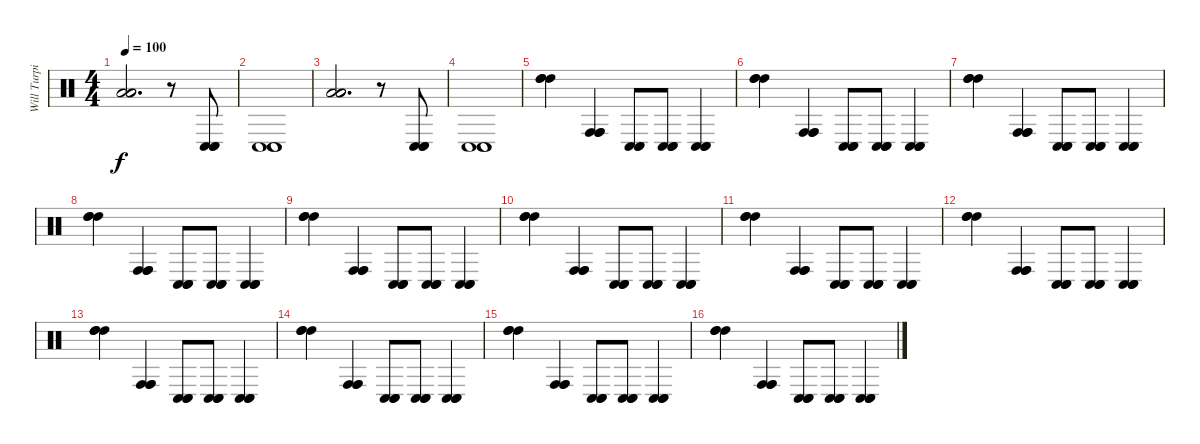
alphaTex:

\track ("Will Turpin" "Will Turpi") {instrument percussion}
\staff {score}
\articulation defaults
\ts (4 4)
\tempo 100
\clef neutral
\ks c
("Low Tom (hit)" "Low Tom (hit)" "Low Tom (hit)").2{d dy f} r.8 ("Conga low (hit)" "Conga low (hit)" "Conga low (hit)").8 |
("Conga low (hit)" "Conga low (hit)" "Conga low (hit)").1 |
("Low Tom (hit)" "Low Tom (hit)" "Low Tom (hit)").2{d} r.8 ("Conga low (hit)" "Conga low (hit)" "Conga low (hit)").8 |
("Conga low (hit)" "Conga low (hit)" "Conga low (hit)").1 |
("High Tom (hit)" "High Tom (hit)" "High Tom (hit)").4 ("Conga high (hit)" "Conga high (hit)" "Conga high (hit)").4 ("Conga low (hit)" "Conga low (hit)" "Conga low (hit)").8 ("Conga low (hit)" "Conga low (hit)" "Conga low (hit)").8 ("Conga low (hit)" "Conga low (hit)" "Conga low (hit)").4 |
("High Tom (hit)" "High Tom (hit)" "High Tom (hit)").4 ("Conga high (hit)" "Conga high (hit)" "Conga high (hit)").4 ("Conga low (hit)" "Conga low (hit)" "Conga low (hit)").8 ("Conga low (hit)" "Conga low (hit)" "Conga low (hit)").8 ("Conga low (hit)" "Conga low (hit)" "Conga low (hit)").4 |
("High Tom (hit)" "High Tom (hit)" "High Tom (hit)").4 ("Conga high (hit)" "Conga high (hit)" "Conga high (hit)").4 ("Conga low (hit)" "Conga low (hit)" "Conga low (hit)").8 ("Conga low (hit)" "Conga low (hit)" "Conga low (hit)").8 ("Conga low (hit)" "Conga low (hit)" "Conga low (hit)").4 |
("High Tom (hit)" "High Tom (hit)" "High Tom (hit)").4 ("Conga high (hit)" "Conga high (hit)" "Conga high (hit)").4 ("Conga low (hit)" "Conga low (hit)" "Conga low (hit)").8 ("Conga low (hit)" "Conga low (hit)" "Conga low (hit)").8 ("Conga low (hit)" "Conga low (hit)" "Conga low (hit)").4 |
("High Tom (hit)" "High Tom (hit)" "High Tom (hit)").4 ("Conga high (hit)" "Conga high (hit)" "Conga high (hit)").4 ("Conga low (hit)" "Conga low (hit)" "Conga low (hit)").8 ("Conga low (hit)" "Conga low (hit)" "Conga low (hit)").8 ("Conga low (hit)" "Conga low (hit)" "Conga low (hit)").4 |
("High Tom (hit)" "High Tom (hit)" "High Tom (hit)").4 ("Conga high (hit)" "Conga high (hit)" "Conga high (hit)").4 ("Conga low (hit)" "Conga low (hit)" "Conga low (hit)").8 ("Conga low (hit)" "Conga low (hit)" "Conga low (hit)").8 ("Conga low (hit)" "Conga low (hit)" "Conga low (hit)").4 |
("High Tom (hit)" "High Tom (hit)" "High Tom (hit)").4 ("Conga high (hit)" "Conga high (hit)" "Conga high (hit)").4 ("Conga low (hit)" "Conga low (hit)" "Conga low (hit)").8 ("Conga low (hit)" "Conga low (hit)" "Conga low (hit)").8 ("Conga low (hit)" "Conga low (hit)" "Conga low (hit)").4 |
("High Tom (hit)" "High Tom (hit)" "High Tom (hit)").4 ("Conga high (hit)" "Conga high (hit)" "Conga high (hit)").4 ("Conga low (hit)" "Conga low (hit)" "Conga low (hit)").8 ("Conga low (hit)" "Conga low (hit)" "Conga low (hit)").8 ("Conga low (hit)" "Conga low (hit)" "Conga low (hit)").4 |
("High Tom (hit)" "High Tom (hit)" "High Tom (hit)").4 ("Conga high (hit)" "Conga high (hit)" "Conga high (hit)").4 ("Conga low (hit)" "Conga low (hit)" "Conga low (hit)").8 ("Conga low (hit)" "Conga low (hit)" "Conga low (hit)").8 ("Conga low (hit)" "Conga low (hit)" "Conga low (hit)").4 |
("High Tom (hit)" "High Tom (hit)" "High Tom (hit)").4 ("Conga high (hit)" "Conga high (hit)" "Conga high (hit)").4 ("Conga low (hit)" "Conga low (hit)" "Conga low (hit)").8 ("Conga low (hit)" "Conga low (hit)" "Conga low (hit)").8 ("Conga low (hit)" "Conga low (hit)" "Conga low (hit)").4 |
("High Tom (hit)" "High Tom (hit)" "High Tom (hit)").4 ("Conga high (hit)" "Conga high (hit)" "Conga high (hit)").4 ("Conga low (hit)" "Conga low (hit)" "Conga low (hit)").8 ("Conga low (hit)" "Conga low (hit)" "Conga low (hit)").8 ("Conga low (hit)" "Conga low (hit)" "Conga low (hit)").4 |
("High Tom (hit)" "High Tom (hit)" "High Tom (hit)").4 ("Conga high (hit)" "Conga high (hit)" "Conga high (hit)").4 ("Conga low (hit)" "Conga low (hit)" "Conga low (hit)").8 ("Conga low (hit)" "Conga low (hit)" "Conga low (hit)").8 ("Conga low (hit)" "Conga low (hit)" "Conga low (hit)").4
